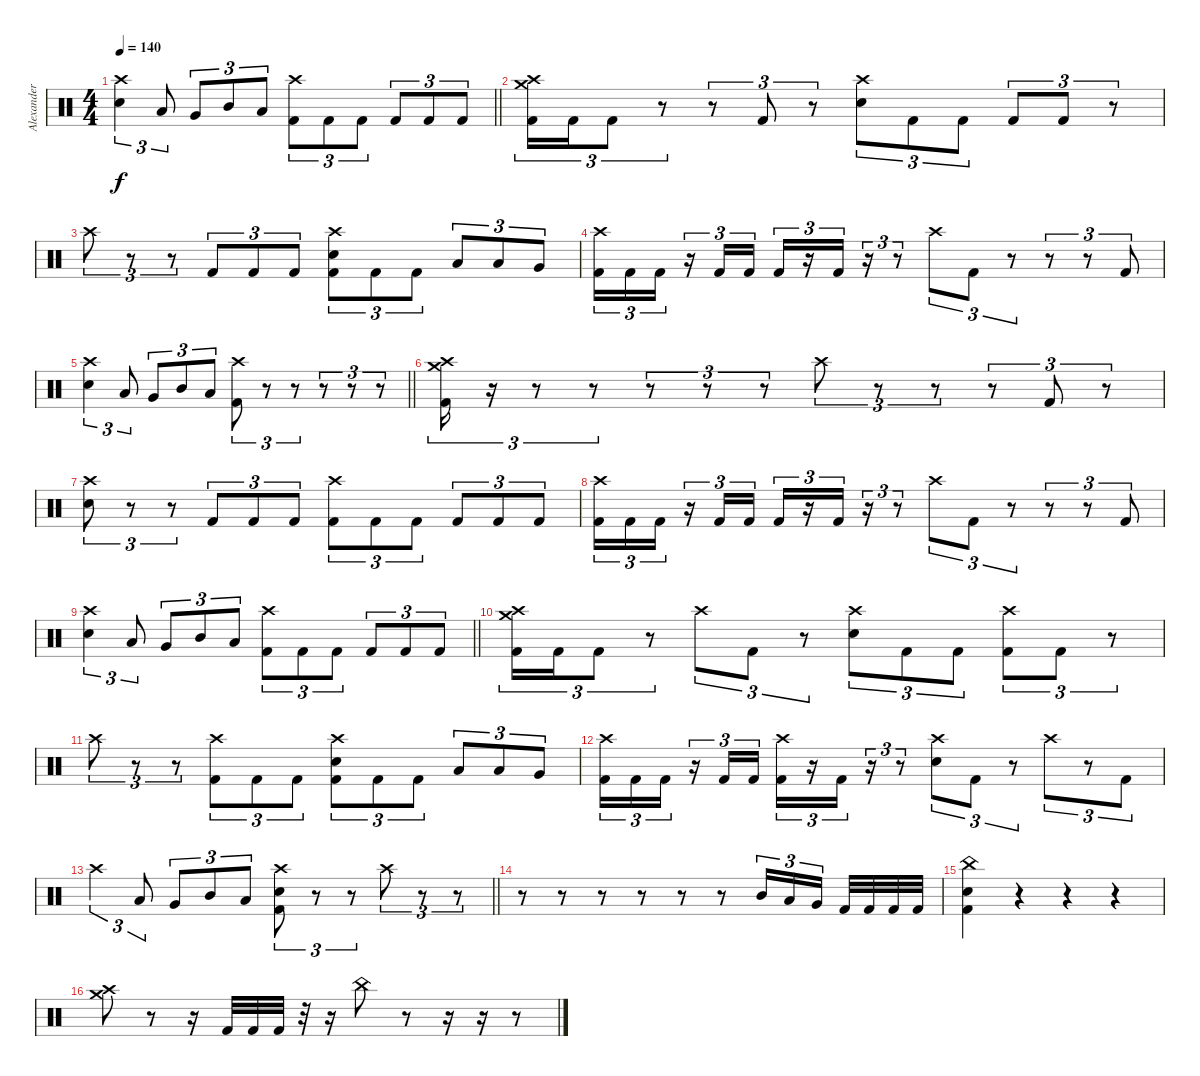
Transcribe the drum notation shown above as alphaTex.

\track ("Alexander Yazikov" "Alexander ") {instrument percussion}
\staff {score}
\articulation defaults
\ts (4 4)
\tempo 140
\clef neutral
\barLineRight lightlight
\ks c
("Crash high (hit)" "Electric Snare (hit)").4{tu (3 2) dy f} "Low Tom (hit)".8{tu (3 2)} "Very Low Tom (hit)".8{tu (3 2)} "Mid Tom (hit)".8{tu (3 2)} "Low Tom (hit)".8{tu (3 2)} ("Crash high (hit)" "Kick (hit) 2").8{tu (3 2)} "Kick (hit) 2".8{tu (3 2)} "Kick (hit) 2".8{tu (3 2)} "Kick (hit) 2".8{tu (3 2)} "Kick (hit) 2".8{tu (3 2)} "Kick (hit) 2".8{tu (3 2)} |
("Crash medium (hit)" "Crash high (hit)" "Kick (hit) 2").16{tu (3 2)} "Kick (hit) 2".16{tu (3 2)} "Kick (hit) 2".8{tu (3 2)} r.8{tu (3 2)} r.8{tu (3 2)} "Kick (hit) 2".8{tu (3 2)} r.8{tu (3 2)} ("Crash high (hit)" "Electric Snare (hit)").8{tu (3 2)} "Kick (hit) 2".8{tu (3 2)} "Kick (hit) 2".8{tu (3 2)} "Kick (hit) 2".8{tu (3 2)} "Kick (hit) 2".8{tu (3 2)} r.8{tu (3 2)} |
"Crash high (hit)".8{tu (3 2)} r.8{tu (3 2)} r.8{tu (3 2)} "Kick (hit) 2".8{tu (3 2)} "Kick (hit) 2".8{tu (3 2)} "Kick (hit) 2".8{tu (3 2)} ("Crash high (hit)" "Electric Snare (hit)" "Kick (hit) 2").8{tu (3 2)} "Kick (hit) 2".8{tu (3 2)} "Kick (hit) 2".8{tu (3 2)} "Low Tom (hit)".8{tu (3 2)} "Low Tom (hit)".8{tu (3 2)} "Very Low Tom (hit)".8{tu (3 2)} |
("Crash high (hit)" "Kick (hit) 2").16{tu (3 2)} "Kick (hit) 2".16{tu (3 2)} "Kick (hit) 2".16{tu (3 2)} r.16{tu (3 2)} "Kick (hit) 2".16{tu (3 2)} "Kick (hit) 2".16{tu (3 2)} "Kick (hit) 2".16{tu (3 2)} r.16{tu (3 2)} "Kick (hit) 2".16{tu (3 2)} r.16{tu (3 2)} r.8{tu (3 2)} "Crash high (hit)".8{tu (3 2)} "Kick (hit) 2".8{tu (3 2)} r.8{tu (3 2)} r.8{tu (3 2)} r.8{tu (3 2)} "Kick (hit) 2".8{tu (3 2)} |
\barLineRight lightlight
("Crash high (hit)" "Electric Snare (hit)").4{tu (3 2)} "Low Tom (hit)".8{tu (3 2)} "Very Low Tom (hit)".8{tu (3 2)} "Mid Tom (hit)".8{tu (3 2)} "Low Tom (hit)".8{tu (3 2)} ("Crash high (hit)" "Kick (hit) 2").8{tu (3 2)} r.8{tu (3 2)} r.8{tu (3 2)} r.8{tu (3 2)} r.8{tu (3 2)} r.8{tu (3 2)} |
("Crash medium (hit)" "Crash high (hit)" "Kick (hit) 2").16{tu (3 2)} r.16{tu (3 2)} r.8{tu (3 2)} r.8{tu (3 2)} r.8{tu (3 2)} r.8{tu (3 2)} r.8{tu (3 2)} "Crash high (hit)".8{tu (3 2)} r.8{tu (3 2)} r.8{tu (3 2)} r.8{tu (3 2)} "Kick (hit) 2".8{tu (3 2)} r.8{tu (3 2)} |
("Crash high (hit)" "Electric Snare (hit)").8{tu (3 2)} r.8{tu (3 2)} r.8{tu (3 2)} "Kick (hit) 2".8{tu (3 2)} "Kick (hit) 2".8{tu (3 2)} "Kick (hit) 2".8{tu (3 2)} ("Crash high (hit)" "Kick (hit) 2").8{tu (3 2)} "Kick (hit) 2".8{tu (3 2)} "Kick (hit) 2".8{tu (3 2)} "Kick (hit) 2".8{tu (3 2)} "Kick (hit) 2".8{tu (3 2)} "Kick (hit) 2".8{tu (3 2)} |
("Crash high (hit)" "Kick (hit) 2").16{tu (3 2)} "Kick (hit) 2".16{tu (3 2)} "Kick (hit) 2".16{tu (3 2)} r.16{tu (3 2)} "Kick (hit) 2".16{tu (3 2)} "Kick (hit) 2".16{tu (3 2)} "Kick (hit) 2".16{tu (3 2)} r.16{tu (3 2)} "Kick (hit) 2".16{tu (3 2)} r.16{tu (3 2)} r.8{tu (3 2)} "Crash high (hit)".8{tu (3 2)} "Kick (hit) 2".8{tu (3 2)} r.8{tu (3 2)} r.8{tu (3 2)} r.8{tu (3 2)} "Kick (hit) 2".8{tu (3 2)} |
\barLineRight lightlight
("Crash high (hit)" "Electric Snare (hit)").4{tu (3 2)} "Low Tom (hit)".8{tu (3 2)} "Very Low Tom (hit)".8{tu (3 2)} "Mid Tom (hit)".8{tu (3 2)} "Low Tom (hit)".8{tu (3 2)} ("Crash high (hit)" "Kick (hit) 2").8{tu (3 2)} "Kick (hit) 2".8{tu (3 2)} "Kick (hit) 2".8{tu (3 2)} "Kick (hit) 2".8{tu (3 2)} "Kick (hit) 2".8{tu (3 2)} "Kick (hit) 2".8{tu (3 2)} |
("Crash medium (hit)" "Crash high (hit)" "Kick (hit) 2").16{tu (3 2)} "Kick (hit) 2".16{tu (3 2)} "Kick (hit) 2".8{tu (3 2)} r.8{tu (3 2)} "Crash high (hit)".8{tu (3 2)} "Kick (hit) 2".8{tu (3 2)} r.8{tu (3 2)} ("Crash high (hit)" "Electric Snare (hit)").8{tu (3 2)} "Kick (hit) 2".8{tu (3 2)} "Kick (hit) 2".8{tu (3 2)} ("Crash high (hit)" "Kick (hit) 2").8{tu (3 2)} "Kick (hit) 2".8{tu (3 2)} r.8{tu (3 2)} |
"Crash high (hit)".8{tu (3 2)} r.8{tu (3 2)} r.8{tu (3 2)} ("Crash high (hit)" "Kick (hit) 2").8{tu (3 2)} "Kick (hit) 2".8{tu (3 2)} "Kick (hit) 2".8{tu (3 2)} ("Crash high (hit)" "Electric Snare (hit)" "Kick (hit) 2").8{tu (3 2)} "Kick (hit) 2".8{tu (3 2)} "Kick (hit) 2".8{tu (3 2)} "Low Tom (hit)".8{tu (3 2)} "Low Tom (hit)".8{tu (3 2)} "Very Low Tom (hit)".8{tu (3 2)} |
("Crash high (hit)" "Kick (hit) 2").16{tu (3 2)} "Kick (hit) 2".16{tu (3 2)} "Kick (hit) 2".16{tu (3 2)} r.16{tu (3 2)} "Kick (hit) 2".16{tu (3 2)} "Kick (hit) 2".16{tu (3 2)} ("Crash high (hit)" "Kick (hit) 2").16{tu (3 2)} r.16{tu (3 2)} "Kick (hit) 2".16{tu (3 2)} r.16{tu (3 2)} r.8{tu (3 2)} ("Crash high (hit)" "Electric Snare (hit)").8{tu (3 2)} "Kick (hit) 2".8{tu (3 2)} r.8{tu (3 2)} "Crash high (hit)".8{tu (3 2)} r.8{tu (3 2)} "Kick (hit) 2".8{tu (3 2)} |
\barLineRight lightlight "Crash high (hit)".4{tu (3 2)} "Low Tom (hit)".8{tu (3 2)} "Very Low Tom (hit)".8{tu (3 2)} "Mid Tom (hit)".8{tu (3 2)} "Low Tom (hit)".8{tu (3 2)}
("Crash high (hit)" "Electric Snare (hit)" "Kick (hit) 2").8{tu (3 2)} r.8{tu (3 2)} r.8{tu (3 2)} "Crash high (hit)".8{tu (3 2)} r.8{tu (3 2)} r.8{tu (3 2)} |
r.8 r.8 r.8 r.8 r.8 r.8 "Mid Tom (hit)".16{tu (3 2)} "Low Tom (hit)".16{tu (3 2)} "Very Low Tom (hit)".16{tu (3 2) beam splitsecondary} "Kick (hit) 2".32 "Kick (hit) 2".32 "Kick (hit) 2".32 "Kick (hit) 2".32 |
("China (hit)" "Electric Snare (hit)" "Kick (hit) 2").4 r.4 r.4 r.4 |
("Crash high (hit)" "Crash medium (hit)").8 r.8 r.16 "Kick (hit) 2".32 "Kick (hit) 2".32 "Kick (hit) 2".32 r.32 r.16 "China (hit)".8 r.8 r.16 r.16 r.8
